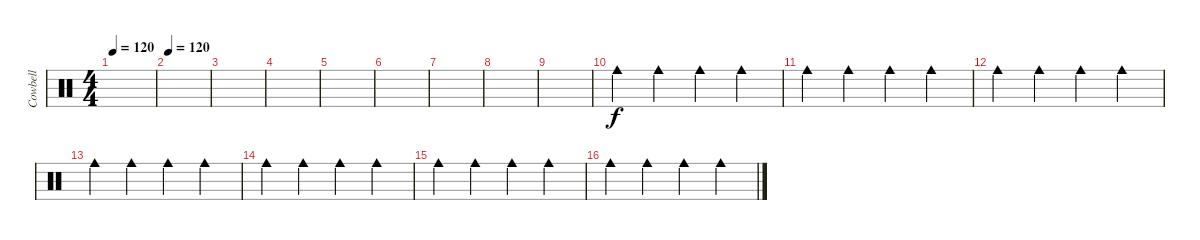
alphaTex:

\track ("Cowbell" "Cowbell") {instrument percussion}
\staff {score}
\articulation defaults
\ts (4 4)
\tempo 120
\clef neutral
\ks c
|
\tempo 120
|
|
|
|
|
|
|
|
"Cowbell medium (hit)".4 "Cowbell medium (hit)".4 "Cowbell medium (hit)".4 "Cowbell medium (hit)".4 |
"Cowbell medium (hit)".4 "Cowbell medium (hit)".4 "Cowbell medium (hit)".4 "Cowbell medium (hit)".4 |
"Cowbell medium (hit)".4 "Cowbell medium (hit)".4 "Cowbell medium (hit)".4 "Cowbell medium (hit)".4 |
"Cowbell medium (hit)".4 "Cowbell medium (hit)".4 "Cowbell medium (hit)".4 "Cowbell medium (hit)".4 |
"Cowbell medium (hit)".4 "Cowbell medium (hit)".4 "Cowbell medium (hit)".4 "Cowbell medium (hit)".4 |
"Cowbell medium (hit)".4 "Cowbell medium (hit)".4 "Cowbell medium (hit)".4 "Cowbell medium (hit)".4 |
"Cowbell medium (hit)".4 "Cowbell medium (hit)".4 "Cowbell medium (hit)".4 "Cowbell medium (hit)".4
